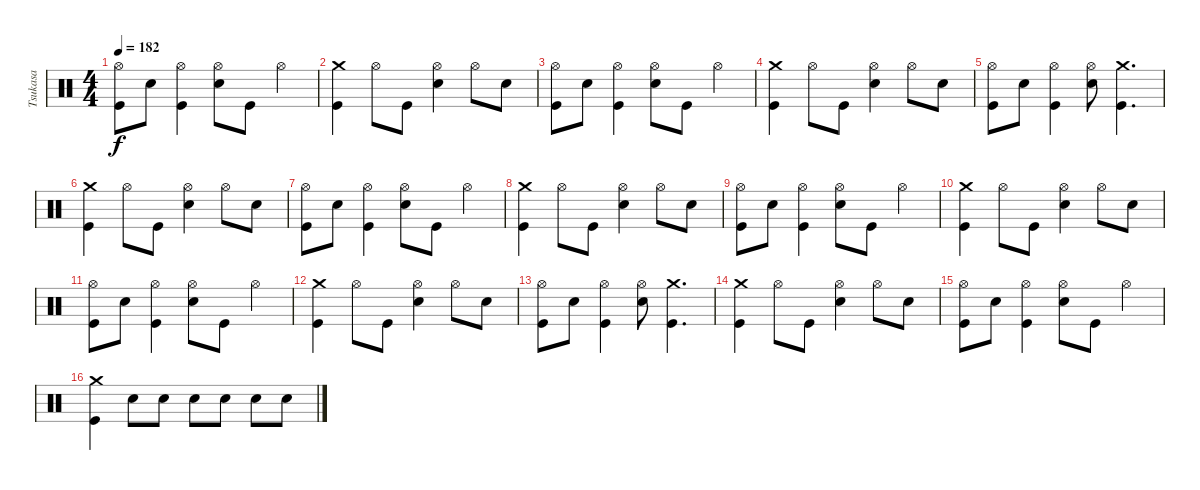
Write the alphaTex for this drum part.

\track ("Tsukasa" "Tsukasa") {instrument percussion}
\staff {score}
\articulation defaults
\ts (4 4)
\tempo 182
\clef neutral
\ks c
("Kick (hit)" "Hi-Hat (open)").8{dy f} "Electric Snare (hit)".8 ("Kick (hit)" "Hi-Hat (open)").4 ("Electric Snare (hit)" "Hi-Hat (open)").8 "Kick (hit)".8 "Hi-Hat (open)".4 |
("Kick (hit)" "Crash medium (hit)").4 "Hi-Hat (open)".8 "Kick (hit)".8 ("Electric Snare (hit)" "Hi-Hat (open)").4 "Hi-Hat (open)".8 "Electric Snare (hit)".8 |
("Kick (hit)" "Hi-Hat (open)").8 "Electric Snare (hit)".8 ("Kick (hit)" "Hi-Hat (open)").4 ("Electric Snare (hit)" "Hi-Hat (open)").8 "Kick (hit)".8 "Hi-Hat (open)".4 |
("Kick (hit)" "Crash medium (hit)").4 "Hi-Hat (open)".8 "Kick (hit)".8 ("Electric Snare (hit)" "Hi-Hat (open)").4 "Hi-Hat (open)".8 "Electric Snare (hit)".8 |
("Kick (hit)" "Hi-Hat (open)").8 "Electric Snare (hit)".8 ("Kick (hit)" "Hi-Hat (open)").4 ("Electric Snare (hit)" "Hi-Hat (open)").8 ("Kick (hit)" "Crash medium (hit)").4{d} |
("Kick (hit)" "Crash medium (hit)").4 "Hi-Hat (open)".8 "Kick (hit)".8 ("Electric Snare (hit)" "Hi-Hat (open)").4 "Hi-Hat (open)".8 "Electric Snare (hit)".8 |
("Kick (hit)" "Hi-Hat (open)").8 "Electric Snare (hit)".8 ("Kick (hit)" "Hi-Hat (open)").4 ("Electric Snare (hit)" "Hi-Hat (open)").8 "Kick (hit)".8 "Hi-Hat (open)".4 |
("Kick (hit)" "Crash medium (hit)").4 "Hi-Hat (open)".8 "Kick (hit)".8 ("Electric Snare (hit)" "Hi-Hat (open)").4 "Hi-Hat (open)".8 "Electric Snare (hit)".8 |
("Kick (hit)" "Hi-Hat (open)").8 "Electric Snare (hit)".8 ("Kick (hit)" "Hi-Hat (open)").4 ("Electric Snare (hit)" "Hi-Hat (open)").8 "Kick (hit)".8 "Hi-Hat (open)".4 |
("Kick (hit)" "Crash medium (hit)").4 "Hi-Hat (open)".8 "Kick (hit)".8 ("Electric Snare (hit)" "Hi-Hat (open)").4 "Hi-Hat (open)".8 "Electric Snare (hit)".8 |
("Kick (hit)" "Hi-Hat (open)").8 "Electric Snare (hit)".8 ("Kick (hit)" "Hi-Hat (open)").4 ("Electric Snare (hit)" "Hi-Hat (open)").8 "Kick (hit)".8 "Hi-Hat (open)".4 |
("Kick (hit)" "Crash medium (hit)").4 "Hi-Hat (open)".8 "Kick (hit)".8 ("Electric Snare (hit)" "Hi-Hat (open)").4 "Hi-Hat (open)".8 "Electric Snare (hit)".8 |
("Kick (hit)" "Hi-Hat (open)").8 "Electric Snare (hit)".8 ("Kick (hit)" "Hi-Hat (open)").4 ("Electric Snare (hit)" "Hi-Hat (open)").8 ("Kick (hit)" "Crash medium (hit)").4{d} |
("Kick (hit)" "Crash medium (hit)").4 "Hi-Hat (open)".8 "Kick (hit)".8 ("Electric Snare (hit)" "Hi-Hat (open)").4 "Hi-Hat (open)".8 "Electric Snare (hit)".8 |
("Kick (hit)" "Hi-Hat (open)").8 "Electric Snare (hit)".8 ("Kick (hit)" "Hi-Hat (open)").4 ("Electric Snare (hit)" "Hi-Hat (open)").8 "Kick (hit)".8 "Hi-Hat (open)".4 |
("Kick (hit)" "Crash medium (hit)").4 "Electric Snare (hit)".8 "Electric Snare (hit)".8 "Electric Snare (hit)".8 "Electric Snare (hit)".8 "Electric Snare (hit)".8 "Electric Snare (hit)".8
